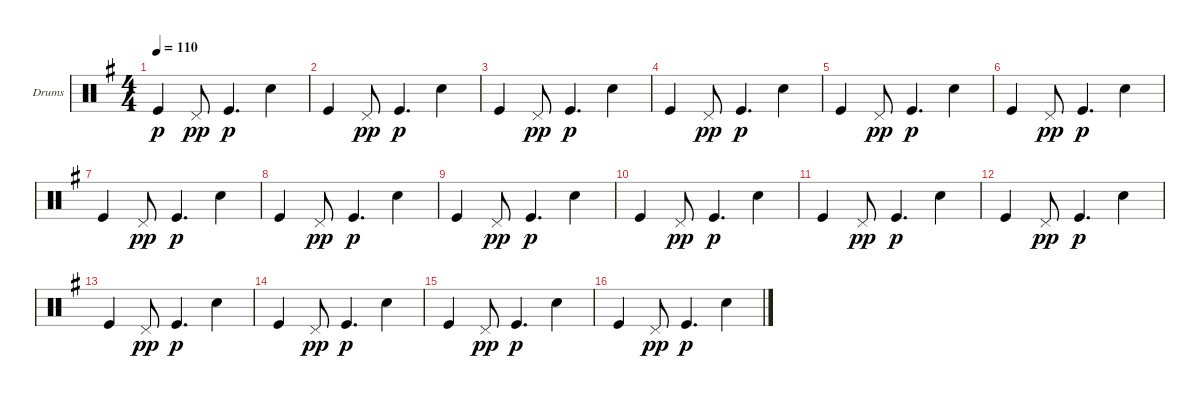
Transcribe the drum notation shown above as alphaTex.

\defaultSystemsLayout 4
\bracketExtendMode groupsimilarinstruments
\firstSystemTrackNameOrientation horizontal
\otherSystemsTrackNameOrientation horizontal
\track ("Drumkit" "Drums") {instrument percussion}
\staff {score}
\articulation defaults
\ts (4 4)
\tempo 110
\clef neutral
\ks g "Kick (hit)".4{dy p} "Pedal Hi-Hat (hit)".8{dy pp} "Kick (hit)".4{d dy p} "Snare (hit) 2".4
|
"Kick (hit)".4 "Pedal Hi-Hat (hit)".8{dy pp} "Kick (hit)".4{d dy p} "Snare (hit) 2".4 |
"Kick (hit)".4 "Pedal Hi-Hat (hit)".8{dy pp} "Kick (hit)".4{d dy p} "Snare (hit) 2".4 |
"Kick (hit)".4 "Pedal Hi-Hat (hit)".8{dy pp} "Kick (hit)".4{d dy p} "Snare (hit) 2".4 |
"Kick (hit)".4 "Pedal Hi-Hat (hit)".8{dy pp} "Kick (hit)".4{d dy p} "Snare (hit) 2".4 |
"Kick (hit)".4 "Pedal Hi-Hat (hit)".8{dy pp} "Kick (hit)".4{d dy p} "Snare (hit) 2".4 |
"Kick (hit)".4 "Pedal Hi-Hat (hit)".8{dy pp} "Kick (hit)".4{d dy p} "Snare (hit) 2".4 |
"Kick (hit)".4 "Pedal Hi-Hat (hit)".8{dy pp} "Kick (hit)".4{d dy p} "Snare (hit) 2".4 |
"Kick (hit)".4 "Pedal Hi-Hat (hit)".8{dy pp} "Kick (hit)".4{d dy p} "Snare (hit) 2".4 |
"Kick (hit)".4 "Pedal Hi-Hat (hit)".8{dy pp} "Kick (hit)".4{d dy p} "Snare (hit) 2".4 |
"Kick (hit)".4 "Pedal Hi-Hat (hit)".8{dy pp} "Kick (hit)".4{d dy p} "Snare (hit) 2".4 |
"Kick (hit)".4 "Pedal Hi-Hat (hit)".8{dy pp} "Kick (hit)".4{d dy p} "Snare (hit) 2".4 |
"Kick (hit)".4 "Pedal Hi-Hat (hit)".8{dy pp} "Kick (hit)".4{d dy p} "Snare (hit) 2".4 |
"Kick (hit)".4 "Pedal Hi-Hat (hit)".8{dy pp} "Kick (hit)".4{d dy p} "Snare (hit) 2".4 |
"Kick (hit)".4 "Pedal Hi-Hat (hit)".8{dy pp} "Kick (hit)".4{d dy p} "Snare (hit) 2".4 |
"Kick (hit)".4 "Pedal Hi-Hat (hit)".8{dy pp} "Kick (hit)".4{d dy p} "Snare (hit) 2".4
